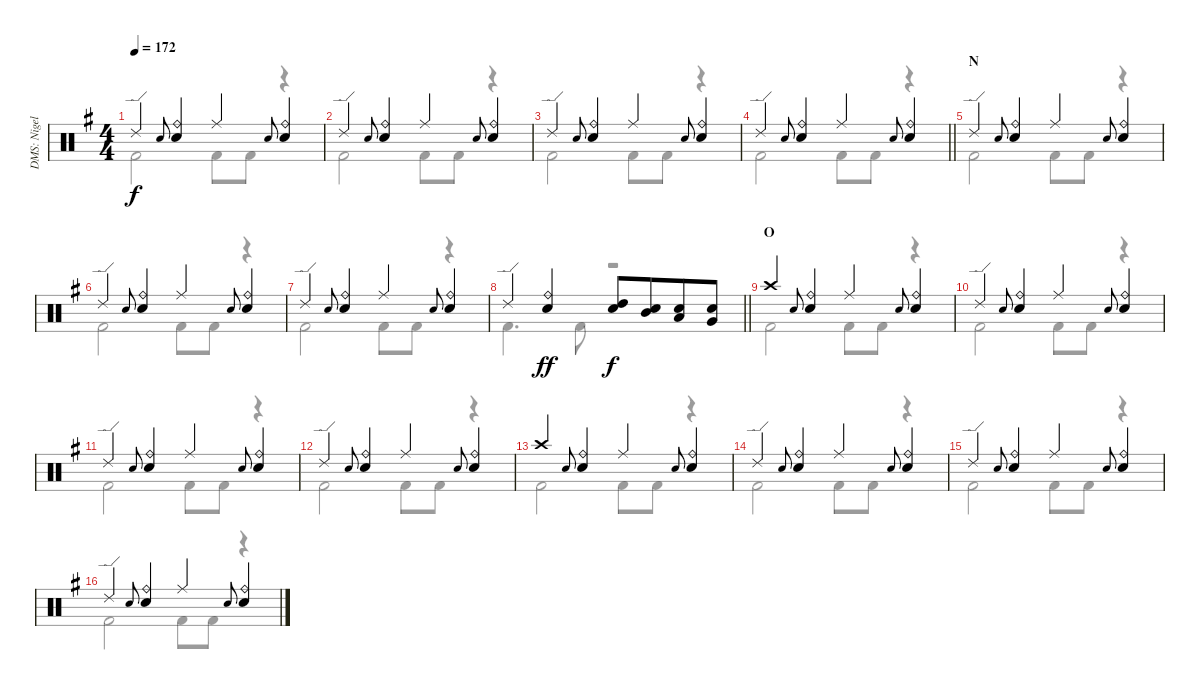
\track ("DMS: Nigel Olsson" "DMS: Nigel") {instrument percussion}
\staff {score}
\articulation defaults
\voice
\ts (4 4)
\tempo 172
\clef neutral
\ks g "Ride (edge) 2".4{dy f} "Snare (hit) 2".8{gr onbeat}
("Ride (bell)" "Electric Snare (hit)").4 "Ride (middle)".4 "Snare (hit) 2".8{gr onbeat} ("Ride (bell)" "Electric Snare (hit)").4 |
"Ride (edge) 2".4 "Snare (hit) 2".8{gr onbeat} ("Ride (bell)" "Electric Snare (hit)").4 "Ride (middle)".4 "Snare (hit) 2".8{gr onbeat} ("Ride (bell)" "Electric Snare (hit)").4 |
"Ride (edge) 2".4 "Snare (hit) 2".8{gr onbeat} ("Ride (bell)" "Electric Snare (hit)").4 "Ride (middle)".4 "Snare (hit) 2".8{gr onbeat} ("Ride (bell)" "Electric Snare (hit)").4 |
\barLineRight lightlight "Ride (edge) 2".4 "Snare (hit) 2".8{gr onbeat}
("Ride (bell)" "Electric Snare (hit)").4 "Ride (middle)".4 "Snare (hit) 2".8{gr onbeat} ("Ride (bell)" "Electric Snare (hit)").4 |
\section ("" "N")
"Ride (edge) 2".4 "Snare (hit) 2".8{gr onbeat} ("Ride (bell)" "Electric Snare (hit)").4 "Ride (middle)".4 "Snare (hit) 2".8{gr onbeat} ("Ride (bell)" "Electric Snare (hit)").4 |
"Ride (edge) 2".4 "Snare (hit) 2".8{gr onbeat} ("Ride (bell)" "Electric Snare (hit)").4 "Ride (middle)".4 "Snare (hit) 2".8{gr onbeat} ("Ride (bell)" "Electric Snare (hit)").4 |
"Ride (edge) 2".4 "Snare (hit) 2".8{gr onbeat} ("Ride (bell)" "Electric Snare (hit)").4 "Ride (middle)".4 "Snare (hit) 2".8{gr onbeat} ("Ride (bell)" "Electric Snare (hit)").4 |
\barLineRight lightlight "Ride (edge) 2".4
("Ride (bell)" "Electric Snare (hit)").4{dy ff} ("Electric Snare (hit)" "High Tom (hit)").8{dy f} ("Electric Snare (hit)" "Mid Tom (hit)").8{beam merge} ("Electric Snare (hit)" "Low Tom (hit)").8 ("Electric Snare (hit)" "Very Low Tom (hit)").8 |
\section ("" "O")
"Crash high (hit)".4 "Snare (hit) 2".8{gr onbeat} ("Ride (bell)" "Electric Snare (hit)").4 "Ride (middle)".4 "Snare (hit) 2".8{gr onbeat} ("Ride (bell)" "Electric Snare (hit)").4 |
"Ride (edge) 2".4 "Snare (hit) 2".8{gr onbeat} ("Ride (bell)" "Electric Snare (hit)").4 "Ride (middle)".4 "Snare (hit) 2".8{gr onbeat} ("Ride (bell)" "Electric Snare (hit)").4 |
"Ride (edge) 2".4 "Snare (hit) 2".8{gr onbeat} ("Ride (bell)" "Electric Snare (hit)").4 "Ride (middle)".4 "Snare (hit) 2".8{gr onbeat} ("Ride (bell)" "Electric Snare (hit)").4 |
"Ride (edge) 2".4 "Snare (hit) 2".8{gr onbeat} ("Ride (bell)" "Electric Snare (hit)").4 "Ride (middle)".4 "Snare (hit) 2".8{gr onbeat} ("Ride (bell)" "Electric Snare (hit)").4 |
"Crash high (hit)".4 "Snare (hit) 2".8{gr onbeat} ("Ride (bell)" "Electric Snare (hit)").4 "Ride (middle)".4 "Snare (hit) 2".8{gr onbeat} ("Ride (bell)" "Electric Snare (hit)").4 |
"Ride (edge) 2".4 "Snare (hit) 2".8{gr onbeat} ("Ride (bell)" "Electric Snare (hit)").4 "Ride (middle)".4 "Snare (hit) 2".8{gr onbeat} ("Ride (bell)" "Electric Snare (hit)").4 |
"Ride (edge) 2".4 "Snare (hit) 2".8{gr onbeat} ("Ride (bell)" "Electric Snare (hit)").4 "Ride (middle)".4 "Snare (hit) 2".8{gr onbeat} ("Ride (bell)" "Electric Snare (hit)").4 |
"Ride (edge) 2".4 "Snare (hit) 2".8{gr onbeat} ("Ride (bell)" "Electric Snare (hit)").4 "Ride (middle)".4 "Snare (hit) 2".8{gr onbeat} ("Ride (bell)" "Electric Snare (hit)").4
\voice
\clef neutral
\ottava regular
\simile none
\ks g "Kick (hit) 2".2{dy f} "Kick (hit) 2".8 "Kick (hit) 2".8
r.4 |
"Kick (hit) 2".2 "Kick (hit) 2".8 "Kick (hit) 2".8 r.4 |
"Kick (hit) 2".2 "Kick (hit) 2".8 "Kick (hit) 2".8 r.4 |
\barLineRight lightlight "Kick (hit) 2".2 "Kick (hit) 2".8 "Kick (hit) 2".8
r.4 |
"Kick (hit) 2".2 "Kick (hit) 2".8 "Kick (hit) 2".8 r.4 |
"Kick (hit) 2".2 "Kick (hit) 2".8 "Kick (hit) 2".8 r.4 |
"Kick (hit) 2".2 "Kick (hit) 2".8 "Kick (hit) 2".8 r.4 |
\barLineRight lightlight "Kick (hit) 2".4{d} "Kick (hit) 2".8
r.2 |
"Kick (hit) 2".2 "Kick (hit) 2".8 "Kick (hit) 2".8 r.4 |
"Kick (hit) 2".2 "Kick (hit) 2".8 "Kick (hit) 2".8 r.4 |
"Kick (hit) 2".2 "Kick (hit) 2".8 "Kick (hit) 2".8 r.4 |
"Kick (hit) 2".2 "Kick (hit) 2".8 "Kick (hit) 2".8 r.4 |
"Kick (hit) 2".2 "Kick (hit) 2".8 "Kick (hit) 2".8 r.4 |
"Kick (hit) 2".2 "Kick (hit) 2".8 "Kick (hit) 2".8 r.4 |
"Kick (hit) 2".2 "Kick (hit) 2".8 "Kick (hit) 2".8 r.4 |
"Kick (hit) 2".2 "Kick (hit) 2".8 "Kick (hit) 2".8 r.4
